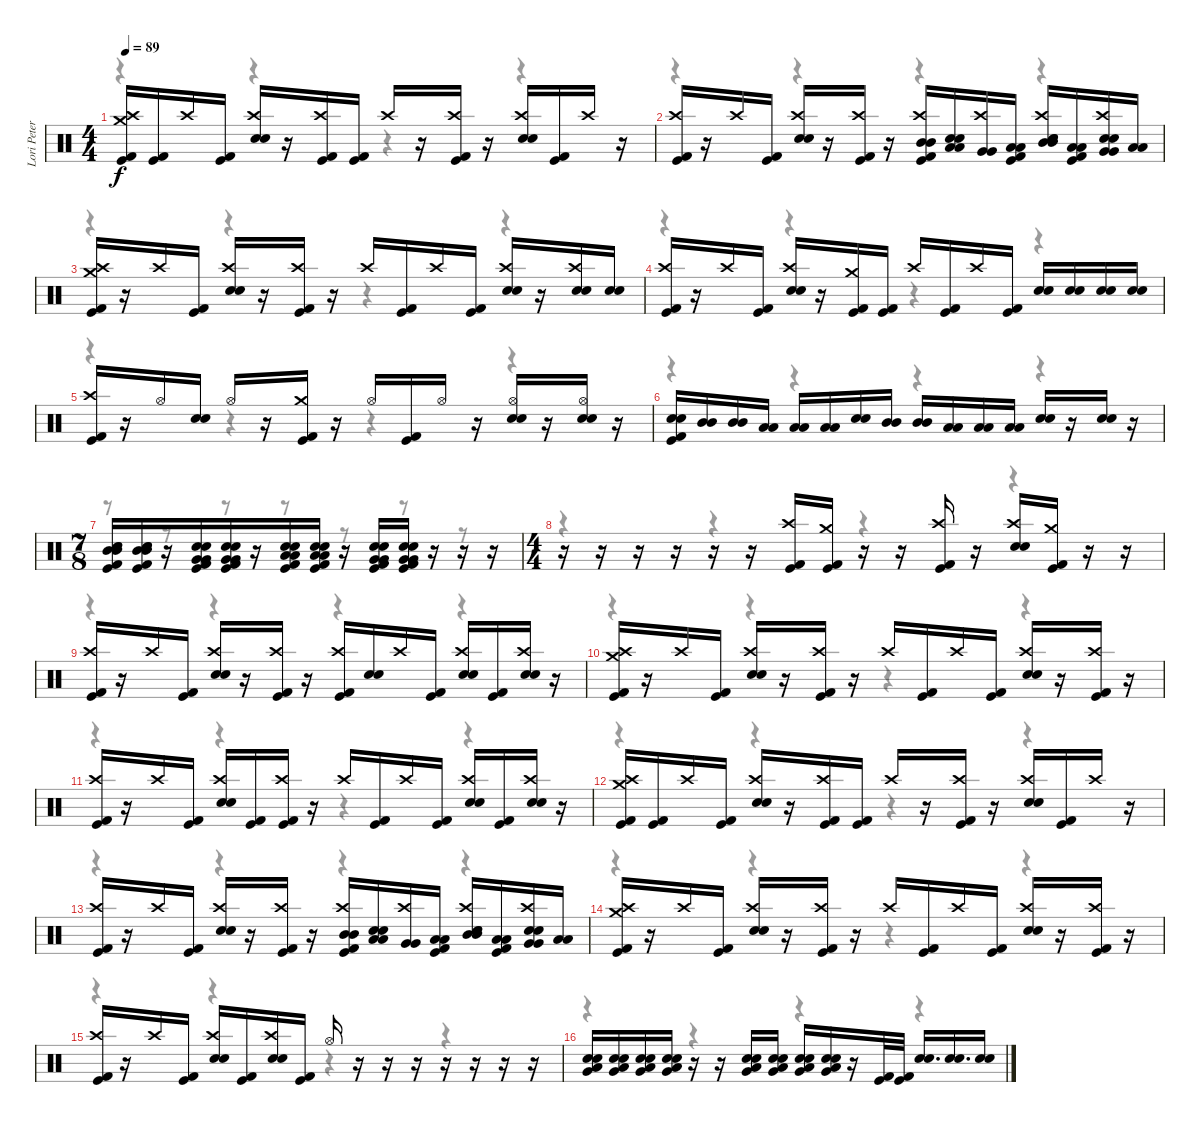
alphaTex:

\track ("Lori Peters" "Lori Peter") {instrument percussion}
\staff {score}
\articulation defaults
\voice
\ts (4 4)
\tempo 89
\clef neutral
\ks c
("Crash high (hit)" "Crash medium (hit)" "Kick (hit) 2" "Kick (hit)").16{dy f} ("Kick (hit) 2" "Kick (hit)").16 "Crash high (hit)".16 ("Kick (hit) 2" "Kick (hit)").16 ("Crash high (hit)" "Snare (hit) 2" "Snare (hit) 2").16 r.16 ("Crash high (hit)" "Kick (hit) 2" "Kick (hit)").16 ("Kick (hit) 2" "Kick (hit)").16 "Crash high (hit)".16 r.16 ("Crash high (hit)" "Kick (hit) 2" "Kick (hit)").16 r.16 ("Crash high (hit)" "Snare (hit) 2" "Snare (hit) 2").16 ("Kick (hit) 2" "Kick (hit)").16 "Crash high (hit)".16 r.16 |
("Crash high (hit)" "Kick (hit) 2" "Kick (hit)").16 r.16 "Crash high (hit)".16 ("Kick (hit) 2" "Kick (hit)").16 ("Crash high (hit)" "Snare (hit) 2" "Snare (hit) 2").16 r.16 ("Crash high (hit)" "Kick (hit) 2" "Kick (hit)").16 r.16 ("Crash high (hit)" "Mid Tom (hit)" "Mid Tom (hit)" "Kick (hit) 2" "Kick (hit)").16 ("Low Tom (hit)" "Low Tom (hit)" "Snare (hit) 2" "Snare (hit) 2").16 ("Crash high (hit)" "Very Low Tom (hit)" "Very Low Tom (hit)").16 ("Low Floor Tom (hit)" "Low Floor Tom (hit)" "Kick (hit) 2" "Kick (hit)").16 ("Crash high (hit)" "Mid Tom (hit)" "Mid Tom (hit)" "Snare (hit) 2" "Snare (hit) 2").16 ("Low Tom (hit)" "Low Tom (hit)" "Kick (hit) 2" "Kick (hit)").16 ("Crash high (hit)" "Very Low Tom (hit)" "Very Low Tom (hit)" "Snare (hit) 2" "Snare (hit) 2").16 ("Low Floor Tom (hit)" "Low Floor Tom (hit)").16 |
("Crash high (hit)" "Crash medium (hit)" "Kick (hit) 2" "Kick (hit)").16 r.16 "Crash high (hit)".16 ("Kick (hit) 2" "Kick (hit)").16 ("Crash high (hit)" "Snare (hit) 2" "Snare (hit) 2").16 r.16 ("Crash high (hit)" "Kick (hit) 2" "Kick (hit)").16 r.16 "Crash high (hit)".16 ("Kick (hit) 2" "Kick (hit)").16 "Crash high (hit)".16 ("Kick (hit) 2" "Kick (hit)").16 ("Crash high (hit)" "Snare (hit) 2" "Snare (hit) 2").16 r.16 ("Crash high (hit)" "Snare (hit) 2" "Snare (hit) 2").16 ("Snare (hit) 2" "Snare (hit) 2").16 |
("Crash high (hit)" "Kick (hit) 2" "Kick (hit)").16 r.16 "Crash high (hit)".16 ("Kick (hit) 2" "Kick (hit)").16 ("Crash high (hit)" "Snare (hit) 2" "Snare (hit) 2").16 r.16 ("Crash medium (hit)" "Kick (hit) 2" "Kick (hit)").16 ("Kick (hit) 2" "Kick (hit)").16 "Crash high (hit)".16 ("Kick (hit) 2" "Kick (hit)").16 "Crash high (hit)".16 ("Kick (hit) 2" "Kick (hit)").16 ("Snare (hit) 2" "Snare (hit) 2").16 ("Snare (hit) 2" "Snare (hit) 2").16 ("Snare (hit) 2" "Snare (hit) 2").16 ("Snare (hit) 2" "Snare (hit) 2").16 |
("Crash high (hit)" "Kick (hit) 2" "Kick (hit)").16 r.16 "Hi-Hat (open)".16 ("Snare (hit) 2" "Snare (hit) 2").16 "Hi-Hat (open)".16 r.16 ("Crash medium (hit)" "Kick (hit) 2" "Kick (hit)").16 r.16 "Hi-Hat (open)".16 ("Kick (hit) 2" "Kick (hit)").16 "Hi-Hat (open)".16 r.16 ("Hi-Hat (open)" "Snare (hit) 2" "Snare (hit) 2").16 r.16 ("Hi-Hat (open)" "Snare (hit) 2" "Snare (hit) 2").16 r.16 |
("Snare (hit) 2" "Snare (hit) 2" "Kick (hit) 2" "Kick (hit)").16 ("Mid Tom (hit)" "Mid Tom (hit)").16 ("Mid Tom (hit)" "Mid Tom (hit)").16 ("Low Tom (hit)" "Low Tom (hit)").16 ("Low Tom (hit)" "Low Tom (hit)").16 ("Low Tom (hit)" "Low Tom (hit)").16 ("Snare (hit) 2" "Snare (hit) 2").16 ("Mid Tom (hit)" "Mid Tom (hit)").16 ("Mid Tom (hit)" "Mid Tom (hit)").16 ("Low Tom (hit)" "Low Tom (hit)").16 ("Low Tom (hit)" "Low Tom (hit)").16 ("Low Tom (hit)" "Low Tom (hit)").16 ("Snare (hit) 2" "Snare (hit) 2").16 r.16 ("Snare (hit) 2" "Snare (hit) 2").16 r.16 |
\ts (7 8)
("Mid Tom (hit)" "Mid Tom (hit)" "Snare (hit) 2" "Snare (hit) 2" "Kick (hit) 2" "Kick (hit)").16 ("Mid Tom (hit)" "Mid Tom (hit)" "Snare (hit) 2" "Snare (hit) 2" "Kick (hit) 2" "Kick (hit)").16 r.16 ("Very Low Tom (hit)" "Very Low Tom (hit)" "Snare (hit) 2" "Snare (hit) 2" "Kick (hit) 2" "Kick (hit)").16 ("Very Low Tom (hit)" "Very Low Tom (hit)" "Snare (hit) 2" "Snare (hit) 2" "Kick (hit) 2" "Kick (hit)").16 r.16 ("Low Tom (hit)" "Low Tom (hit)" "Snare (hit) 2" "Snare (hit) 2" "Kick (hit) 2" "Kick (hit)").16 ("Low Tom (hit)" "Low Tom (hit)" "Snare (hit) 2" "Snare (hit) 2" "Kick (hit) 2" "Kick (hit)").16 r.16 ("Very Low Tom (hit)" "Very Low Tom (hit)" "Snare (hit) 2" "Snare (hit) 2" "Kick (hit) 2" "Kick (hit)").16 ("Very Low Tom (hit)" "Very Low Tom (hit)" "Snare (hit) 2" "Snare (hit) 2" "Kick (hit) 2" "Kick (hit)").16 r.16 r.16 r.16 |
\ts (4 4)
r.16 r.16 r.16 r.16 r.16 r.16 ("Crash high (hit)" "Kick (hit) 2" "Kick (hit)").16 ("Crash medium (hit)" "Kick (hit) 2" "Kick (hit)").16 r.16 r.16 ("Crash high (hit)" "Kick (hit) 2" "Kick (hit)").16 r.16 ("Crash high (hit)" "Snare (hit) 2" "Snare (hit) 2").16 ("Crash medium (hit)" "Kick (hit) 2" "Kick (hit)").16 r.16 r.16 |
("Crash high (hit)" "Kick (hit) 2" "Kick (hit)").16 r.16 "Crash high (hit)".16 ("Kick (hit) 2" "Kick (hit)").16 ("Crash high (hit)" "Snare (hit) 2" "Snare (hit) 2").16 r.16 ("Crash high (hit)" "Kick (hit) 2" "Kick (hit)").16 r.16 ("Crash high (hit)" "Kick (hit) 2" "Kick (hit)").16 ("Snare (hit) 2" "Snare (hit) 2").16 "Crash high (hit)".16 ("Kick (hit) 2" "Kick (hit)").16 ("Crash high (hit)" "Snare (hit) 2" "Snare (hit) 2").16 ("Kick (hit) 2" "Kick (hit)").16 ("Crash high (hit)" "Snare (hit) 2" "Snare (hit) 2").16 r.16 |
("Crash high (hit)" "Crash medium (hit)" "Kick (hit) 2" "Kick (hit)").16 r.16 "Crash high (hit)".16 ("Kick (hit) 2" "Kick (hit)").16 ("Crash high (hit)" "Snare (hit) 2" "Snare (hit) 2").16 r.16 ("Crash high (hit)" "Kick (hit) 2" "Kick (hit)").16 r.16 "Crash high (hit)".16 ("Kick (hit) 2" "Kick (hit)").16 "Crash high (hit)".16 ("Kick (hit) 2" "Kick (hit)").16 ("Crash high (hit)" "Snare (hit) 2" "Snare (hit) 2").16 r.16 ("Crash high (hit)" "Kick (hit) 2" "Kick (hit)").16 r.16 |
("Crash high (hit)" "Kick (hit) 2" "Kick (hit)").16 r.16 "Crash high (hit)".16 ("Kick (hit) 2" "Kick (hit)").16 ("Crash high (hit)" "Snare (hit) 2" "Snare (hit) 2").16 ("Kick (hit) 2" "Kick (hit)").16 ("Crash high (hit)" "Kick (hit) 2" "Kick (hit)").16 r.16 "Crash high (hit)".16 ("Kick (hit) 2" "Kick (hit)").16 "Crash high (hit)".16 ("Kick (hit) 2" "Kick (hit)").16 ("Crash high (hit)" "Snare (hit) 2" "Snare (hit) 2").16 ("Kick (hit) 2" "Kick (hit)").16 ("Crash high (hit)" "Snare (hit) 2" "Snare (hit) 2").16 r.16 |
("Crash high (hit)" "Crash medium (hit)" "Kick (hit) 2" "Kick (hit)").16 ("Kick (hit) 2" "Kick (hit)").16 "Crash high (hit)".16 ("Kick (hit) 2" "Kick (hit)").16 ("Crash high (hit)" "Snare (hit) 2" "Snare (hit) 2").16 r.16 ("Crash high (hit)" "Kick (hit) 2" "Kick (hit)").16 ("Kick (hit) 2" "Kick (hit)").16 "Crash high (hit)".16 r.16 ("Crash high (hit)" "Kick (hit) 2" "Kick (hit)").16 r.16 ("Crash high (hit)" "Snare (hit) 2" "Snare (hit) 2").16 ("Kick (hit) 2" "Kick (hit)").16 "Crash high (hit)".16 r.16 |
("Crash high (hit)" "Kick (hit) 2" "Kick (hit)").16 r.16 "Crash high (hit)".16 ("Kick (hit) 2" "Kick (hit)").16 ("Crash high (hit)" "Snare (hit) 2" "Snare (hit) 2").16 r.16 ("Crash high (hit)" "Kick (hit) 2" "Kick (hit)").16 r.16 ("Crash high (hit)" "Mid Tom (hit)" "Mid Tom (hit)" "Kick (hit) 2" "Kick (hit)").16 ("Low Tom (hit)" "Low Tom (hit)" "Snare (hit) 2" "Snare (hit) 2").16 ("Crash high (hit)" "Very Low Tom (hit)" "Very Low Tom (hit)").16 ("Low Floor Tom (hit)" "Low Floor Tom (hit)" "Kick (hit) 2" "Kick (hit)").16 ("Crash high (hit)" "Mid Tom (hit)" "Mid Tom (hit)" "Snare (hit) 2" "Snare (hit) 2").16 ("Low Tom (hit)" "Low Tom (hit)" "Kick (hit) 2" "Kick (hit)").16 ("Crash high (hit)" "Very Low Tom (hit)" "Very Low Tom (hit)" "Snare (hit) 2" "Snare (hit) 2").16 ("Low Floor Tom (hit)" "Low Floor Tom (hit)").16 |
("Crash high (hit)" "Crash medium (hit)" "Kick (hit) 2" "Kick (hit)").16 r.16 "Crash high (hit)".16 ("Kick (hit) 2" "Kick (hit)").16 ("Crash high (hit)" "Snare (hit) 2" "Snare (hit) 2").16 r.16 ("Crash high (hit)" "Kick (hit) 2" "Kick (hit)").16 r.16 "Crash high (hit)".16 ("Kick (hit) 2" "Kick (hit)").16 "Crash high (hit)".16 ("Kick (hit) 2" "Kick (hit)").16 ("Crash high (hit)" "Snare (hit) 2" "Snare (hit) 2").16 r.16 ("Crash high (hit)" "Kick (hit) 2" "Kick (hit)").16 r.16 |
("Crash high (hit)" "Kick (hit) 2" "Kick (hit)").16 r.16 "Crash high (hit)".16 ("Kick (hit) 2" "Kick (hit)").16 ("Crash high (hit)" "Snare (hit) 2" "Snare (hit) 2").16 ("Kick (hit) 2" "Kick (hit)").16 ("Crash high (hit)" "Snare (hit) 2" "Snare (hit) 2").16 ("Kick (hit) 2" "Kick (hit)").16 "Hi-Hat (open)".16 r.16 r.16 r.16 r.16 r.16 r.16 r.16 |
("Snare (hit) 2" "Snare (hit) 2" "Very Low Tom (hit)" "Low Floor Tom (hit)").16 ("Snare (hit) 2" "Snare (hit) 2" "Very Low Tom (hit)" "Low Floor Tom (hit)").16 ("Snare (hit) 2" "Snare (hit) 2" "Very Low Tom (hit)" "Low Floor Tom (hit)").16 ("Snare (hit) 2" "Snare (hit) 2" "Very Low Tom (hit)" "Low Floor Tom (hit)").16 r.16 r.16 ("Snare (hit) 2" "Snare (hit) 2" "Very Low Tom (hit)" "Low Floor Tom (hit)").16 ("Snare (hit) 2" "Snare (hit) 2" "Very Low Tom (hit)" "Low Floor Tom (hit)").16 ("Snare (hit) 2" "Snare (hit) 2" "Very Low Tom (hit)" "Low Floor Tom (hit)").16 ("Snare (hit) 2" "Snare (hit) 2" "Very Low Tom (hit)" "Low Floor Tom (hit)").16 r.16 ("Kick (hit) 2" "Kick (hit)").32 ("Kick (hit) 2" "Kick (hit)").32 ("Snare (hit) 2" "Snare (hit) 2").16{d} ("Snare (hit) 2" "Snare (hit) 2").16{d} ("Snare (hit) 2" "Snare (hit) 2").16
\voice
\clef neutral
\ottava regular
\simile none
\ks c
r.4{dy f} r.4 r.4 r.4 |
r.4 r.4 r.4 r.4 |
r.4 r.4 r.4 r.4 |
r.4 r.4 r.4 r.4 |
r.4 r.4 r.4 r.4 |
r.4 r.4 r.4 r.4 |
r.8 r.8 r.8 r.8 r.8 r.8 r.8 |
r.4 r.4 r.4 r.4 |
r.4 r.4 r.4 r.4 |
r.4 r.4 r.4 r.4 |
r.4 r.4 r.4 r.4 |
r.4 r.4 r.4 r.4 |
r.4 r.4 r.4 r.4 |
r.4 r.4 r.4 r.4 |
r.4 r.4 r.4 r.4 |
r.4 r.4 r.4 r.4
